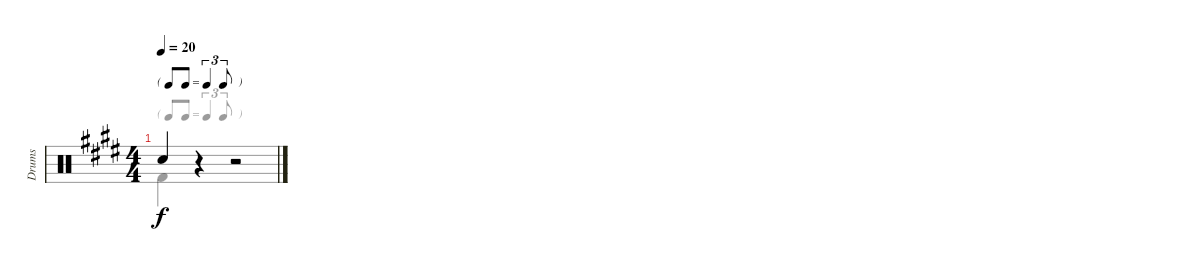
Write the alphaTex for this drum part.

\track ("Drums" "Drums") {instrument percussion}
\staff {score}
\articulation defaults
\voice
\ts (4 4)
\tf triplet8th
\tempo 20
\clef neutral
\ks e "Snare (hit) 2".4{dy f}
r.4 r.2
\voice
\clef neutral
\ottava regular
\simile none
\ks e "Kick (hit) 2".4{dy f}
r.4 r.2
